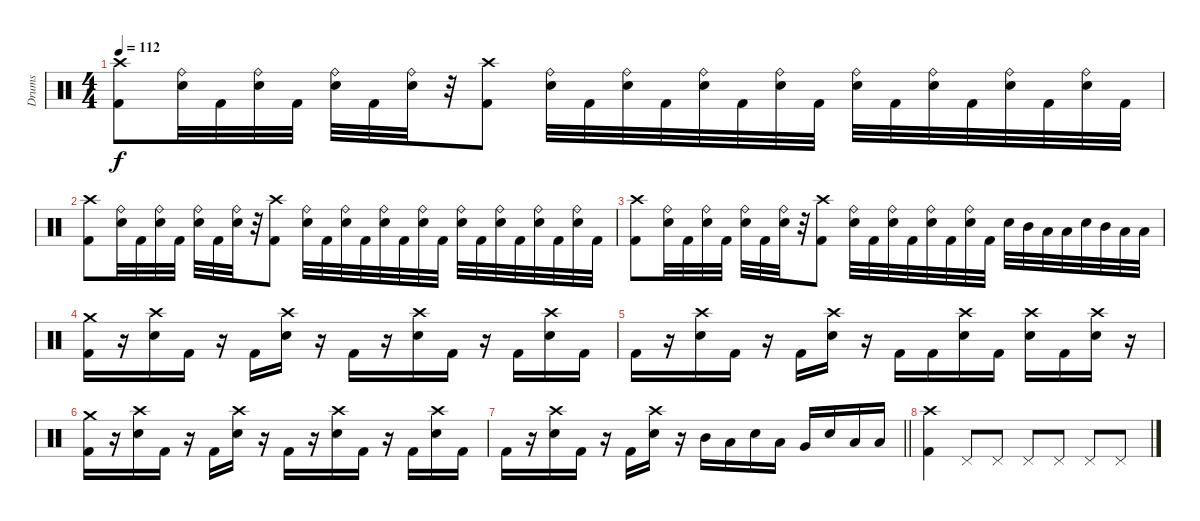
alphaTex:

\track ("Drums" "Drums") {instrument percussion}
\staff
\articulation defaults
\ts (4 4)
\tempo 112
\clef neutral
\ks c
("Crash high (hit)" "Kick (hit) 2").8{dy f} ("Ride (bell)" "Snare (hit) 2").32 "Kick (hit) 2".32 ("Ride (bell)" "Snare (hit) 2").32 "Kick (hit) 2".32 ("Ride (bell)" "Snare (hit) 2").32 "Kick (hit) 2".32 ("Ride (bell)" "Snare (hit) 2").32 r.32 ("Crash high (hit)" "Kick (hit) 2").8 ("Ride (bell)" "Snare (hit) 2").32 "Kick (hit) 2".32 ("Ride (bell)" "Snare (hit) 2").32 "Kick (hit) 2".32 ("Ride (bell)" "Snare (hit) 2").32 "Kick (hit) 2".32 ("Ride (bell)" "Snare (hit) 2").32 "Kick (hit) 2".32 ("Ride (bell)" "Snare (hit) 2").32 "Kick (hit) 2".32 ("Ride (bell)" "Snare (hit) 2").32 "Kick (hit) 2".32 ("Ride (bell)" "Snare (hit) 2").32 "Kick (hit) 2".32 ("Ride (bell)" "Snare (hit) 2").32 "Kick (hit) 2".32 |
("Crash high (hit)" "Kick (hit) 2").8 ("Ride (bell)" "Snare (hit) 2").32 "Kick (hit) 2".32 ("Ride (bell)" "Snare (hit) 2").32 "Kick (hit) 2".32 ("Ride (bell)" "Snare (hit) 2").32 "Kick (hit) 2".32 ("Ride (bell)" "Snare (hit) 2").32 r.32 ("Crash high (hit)" "Kick (hit) 2").8 ("Ride (bell)" "Snare (hit) 2").32 "Kick (hit) 2".32 ("Ride (bell)" "Snare (hit) 2").32 "Kick (hit) 2".32 ("Ride (bell)" "Snare (hit) 2").32 "Kick (hit) 2".32 ("Ride (bell)" "Snare (hit) 2").32 "Kick (hit) 2".32 ("Ride (bell)" "Snare (hit) 2").32 "Kick (hit) 2".32 ("Ride (bell)" "Snare (hit) 2").32 "Kick (hit) 2".32 ("Ride (bell)" "Snare (hit) 2").32 "Kick (hit) 2".32 ("Ride (bell)" "Snare (hit) 2").32 "Kick (hit) 2".32 |
("Crash high (hit)" "Kick (hit) 2").8 ("Ride (bell)" "Snare (hit) 2").32 "Kick (hit) 2".32 ("Ride (bell)" "Snare (hit) 2").32 "Kick (hit) 2".32 ("Ride (bell)" "Snare (hit) 2").32 "Kick (hit) 2".32 ("Ride (bell)" "Snare (hit) 2").32 r.32 ("Crash high (hit)" "Kick (hit) 2").8 ("Ride (bell)" "Snare (hit) 2").32 "Kick (hit) 2".32 ("Ride (bell)" "Snare (hit) 2").32 "Kick (hit) 2".32 ("Ride (bell)" "Snare (hit) 2").32 "Kick (hit) 2".32 ("Ride (bell)" "Snare (hit) 2").32 "Kick (hit) 2".32 "Snare (hit) 2".32 "Mid Tom (hit)".32 "Low Tom (hit)".32 "Low Floor Tom (hit)".32 "Snare (hit) 2".32 "Mid Tom (hit)".32 "Low Tom (hit)".32 "Low Floor Tom (hit)".32 |
("Crash medium (hit)" "Kick (hit) 2").16 r.16 ("Crash high (hit)" "Snare (hit) 2").16 "Kick (hit) 2".16 r.16 "Kick (hit) 2".16 ("Crash high (hit)" "Snare (hit) 2").16 r.16 "Kick (hit) 2".16 r.16 ("Crash high (hit)" "Snare (hit) 2").16 "Kick (hit) 2".16 r.16 "Kick (hit) 2".16 ("Crash high (hit)" "Snare (hit) 2").16 "Kick (hit) 2".16 |
"Kick (hit) 2".16 r.16 ("Crash high (hit)" "Snare (hit) 2").16 "Kick (hit) 2".16 r.16 "Kick (hit) 2".16 ("Crash high (hit)" "Snare (hit) 2").16 r.16 "Kick (hit) 2".16 "Kick (hit) 2".16 ("Crash high (hit)" "Snare (hit) 2").16 "Kick (hit) 2".16 ("Crash high (hit)" "Snare (hit) 2").16 "Kick (hit) 2".16 ("Crash high (hit)" "Snare (hit) 2").16 r.16 |
("Crash medium (hit)" "Kick (hit) 2").16 r.16 ("Crash high (hit)" "Snare (hit) 2").16 "Kick (hit) 2".16 r.16 "Kick (hit) 2".16 ("Crash high (hit)" "Snare (hit) 2").16 r.16 "Kick (hit) 2".16 r.16 ("Crash high (hit)" "Snare (hit) 2").16 "Kick (hit) 2".16 r.16 "Kick (hit) 2".16 ("Crash high (hit)" "Snare (hit) 2").16 "Kick (hit) 2".16 |
\barLineRight lightlight "Kick (hit) 2".16
r.16 ("Crash high (hit)" "Snare (hit) 2").16 "Kick (hit) 2".16 r.16 "Kick (hit) 2".16 ("Crash high (hit)" "Snare (hit) 2").16 r.16 "Mid Tom (hit)".16 "Low Tom (hit)".16 "Snare (hit) 2".16 "Low Tom (hit)".16 "Very Low Tom (hit)".16 "Snare (hit) 2".16 "Low Floor Tom (hit)".16 "Low Floor Tom (hit)".16 |
("Crash high (hit)" "Kick (hit) 2").4 "Pedal Hi-Hat (hit)".8 "Pedal Hi-Hat (hit)".8 "Pedal Hi-Hat (hit)".8 "Pedal Hi-Hat (hit)".8 "Pedal Hi-Hat (hit)".8 "Pedal Hi-Hat (hit)".8
